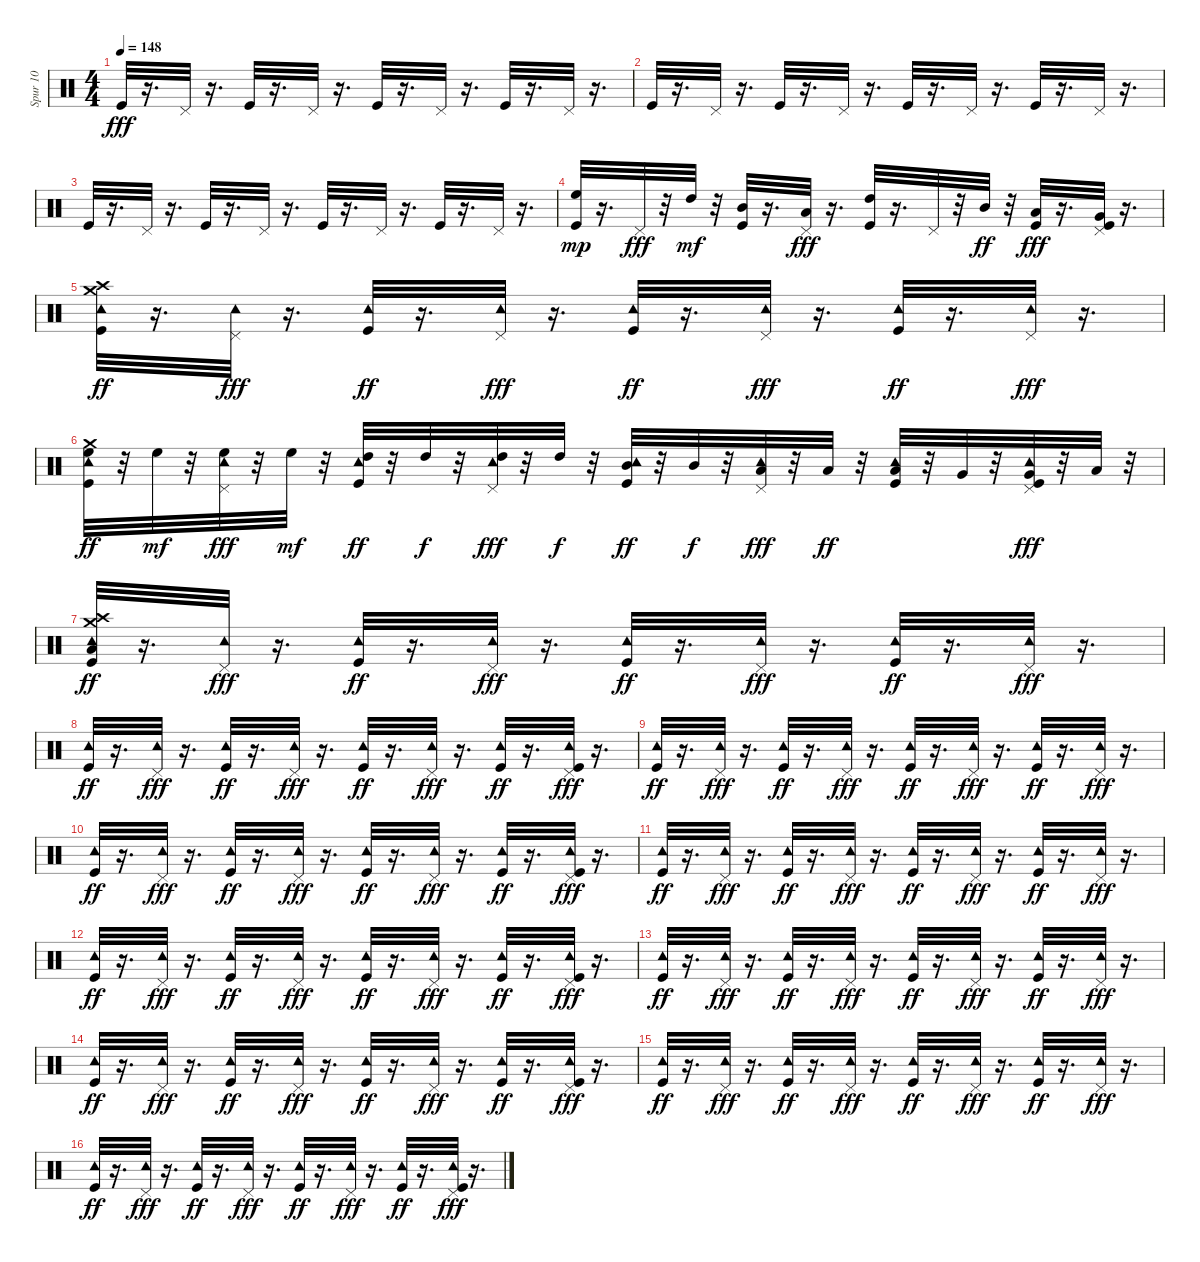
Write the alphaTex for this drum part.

\track ("Spur 10" "Spur 10") {instrument percussion}
\staff {score}
\articulation defaults
\ts (4 4)
\tempo 148
\clef neutral
\ks c "Kick (hit)".32{dy fff}
r.16{d} "Pedal Hi-Hat (hit)".32 r.16{d} "Kick (hit)".32 r.16{d} "Pedal Hi-Hat (hit)".32 r.16{d} "Kick (hit)".32 r.16{d} "Pedal Hi-Hat (hit)".32 r.16{d} "Kick (hit)".32 r.16{d} "Pedal Hi-Hat (hit)".32 r.16{d} |
"Kick (hit)".32 r.16{d} "Pedal Hi-Hat (hit)".32 r.16{d} "Kick (hit)".32 r.16{d} "Pedal Hi-Hat (hit)".32 r.16{d} "Kick (hit)".32 r.16{d} "Pedal Hi-Hat (hit)".32 r.16{d} "Kick (hit)".32 r.16{d} "Pedal Hi-Hat (hit)".32 r.16{d} |
"Kick (hit)".32 r.16{d} "Pedal Hi-Hat (hit)".32 r.16{d} "Kick (hit)".32 r.16{d} "Pedal Hi-Hat (hit)".32 r.16{d} "Kick (hit)".32 r.16{d} "Pedal Hi-Hat (hit)".32 r.16{d} "Kick (hit)".32 r.16{d} "Pedal Hi-Hat (hit)".32 r.16{d} |
("Kick (hit)" "High Floor Tom (hit)").32{dy mp} r.16{d} "Pedal Hi-Hat (hit)".32{dy fff} r.32 "High Tom (hit)".32{dy mf} r.32 ("Kick (hit)" "Mid Tom (hit)").32 r.16{d} ("Low Tom (hit)" "Pedal Hi-Hat (hit)").32{dy fff} r.16{d} ("Kick (hit)" "High Tom (hit)").32 r.16{d} "Pedal Hi-Hat (hit)".32 r.32 "Mid Tom (hit)".32{dy ff} r.32 ("Kick (hit)" "Low Tom (hit)").32{dy fff} r.16{d} ("Kick (hit)" "Very Low Tom (hit)" "Pedal Hi-Hat (hit)").32 r.16{d} |
("Kick (hit)" "Tambourine (hit)" "Crash high (hit)" "Crash medium (hit)").32{dy ff} r.16{d} ("Tambourine (hit)" "Pedal Hi-Hat (hit)").32{dy fff} r.16{d} ("Kick (hit)" "Tambourine (hit)").32{dy ff} r.16{d} ("Tambourine (hit)" "Pedal Hi-Hat (hit)").32{dy fff} r.16{d} ("Kick (hit)" "Tambourine (hit)").32{dy ff} r.16{d} ("Tambourine (hit)" "Pedal Hi-Hat (hit)").32{dy fff} r.16{d} ("Kick (hit)" "Tambourine (hit)").32{dy ff} r.16{d} ("Tambourine (hit)" "Pedal Hi-Hat (hit)").32{dy fff} r.16{d} |
("Kick (hit)" "High Floor Tom (hit)" "Tambourine (hit)" "Crash medium (hit)").32{dy ff} r.32 "High Floor Tom (hit)".32{dy mf} r.32 ("High Floor Tom (hit)" "Tambourine (hit)" "Pedal Hi-Hat (hit)").32{dy fff} r.32 "High Floor Tom (hit)".32{dy mf} r.32 ("Kick (hit)" "High Tom (hit)" "Tambourine (hit)").32{dy ff} r.32 "High Tom (hit)".32{dy f} r.32 ("High Tom (hit)" "Tambourine (hit)" "Pedal Hi-Hat (hit)").32{dy fff} r.32 "High Tom (hit)".32{dy f} r.32 ("Kick (hit)" "Mid Tom (hit)" "Tambourine (hit)").32{dy ff} r.32 "Mid Tom (hit)".32{dy f} r.32 ("Low Tom (hit)" "Tambourine (hit)" "Pedal Hi-Hat (hit)").32{dy fff} r.32 "Low Tom (hit)".32{dy ff} r.32 ("Kick (hit)" "Low Tom (hit)" "Tambourine (hit)").32 r.32 "Very Low Tom (hit)".32 r.32 ("Kick (hit)" "Very Low Tom (hit)" "Tambourine (hit)" "Pedal Hi-Hat (hit)").32{dy fff} r.32 "Low Floor Tom (hit)".32 r.32 |
("Kick (hit)" "Low Floor Tom (hit)" "Tambourine (hit)" "Crash high (hit)" "Crash medium (hit)").32{dy ff} r.16{d} ("Tambourine (hit)" "Pedal Hi-Hat (hit)").32{dy fff} r.16{d} ("Kick (hit)" "Tambourine (hit)").32{dy ff} r.16{d} ("Tambourine (hit)" "Pedal Hi-Hat (hit)").32{dy fff} r.16{d} ("Kick (hit)" "Tambourine (hit)").32{dy ff} r.16{d} ("Tambourine (hit)" "Pedal Hi-Hat (hit)").32{dy fff} r.16{d} ("Kick (hit)" "Tambourine (hit)").32{dy ff} r.16{d} ("Tambourine (hit)" "Pedal Hi-Hat (hit)").32{dy fff} r.16{d} |
("Kick (hit)" "Tambourine (hit)").32{dy ff} r.16{d} ("Tambourine (hit)" "Pedal Hi-Hat (hit)").32{dy fff} r.16{d} ("Kick (hit)" "Tambourine (hit)").32{dy ff} r.16{d} ("Tambourine (hit)" "Pedal Hi-Hat (hit)").32{dy fff} r.16{d} ("Kick (hit)" "Tambourine (hit)").32{dy ff} r.16{d} ("Tambourine (hit)" "Pedal Hi-Hat (hit)").32{dy fff} r.16{d} ("Kick (hit)" "Tambourine (hit)").32{dy ff} r.16{d} ("Kick (hit)" "Tambourine (hit)" "Pedal Hi-Hat (hit)").32{dy fff} r.16{d} |
("Kick (hit)" "Tambourine (hit)").32{dy ff} r.16{d} ("Tambourine (hit)" "Pedal Hi-Hat (hit)").32{dy fff} r.16{d} ("Kick (hit)" "Tambourine (hit)").32{dy ff} r.16{d} ("Tambourine (hit)" "Pedal Hi-Hat (hit)").32{dy fff} r.16{d} ("Kick (hit)" "Tambourine (hit)").32{dy ff} r.16{d} ("Tambourine (hit)" "Pedal Hi-Hat (hit)").32{dy fff} r.16{d} ("Kick (hit)" "Tambourine (hit)").32{dy ff} r.16{d} ("Tambourine (hit)" "Pedal Hi-Hat (hit)").32{dy fff} r.16{d} |
("Kick (hit)" "Tambourine (hit)").32{dy ff} r.16{d} ("Tambourine (hit)" "Pedal Hi-Hat (hit)").32{dy fff} r.16{d} ("Kick (hit)" "Tambourine (hit)").32{dy ff} r.16{d} ("Tambourine (hit)" "Pedal Hi-Hat (hit)").32{dy fff} r.16{d} ("Kick (hit)" "Tambourine (hit)").32{dy ff} r.16{d} ("Tambourine (hit)" "Pedal Hi-Hat (hit)").32{dy fff} r.16{d} ("Kick (hit)" "Tambourine (hit)").32{dy ff} r.16{d} ("Kick (hit)" "Tambourine (hit)" "Pedal Hi-Hat (hit)").32{dy fff} r.16{d} |
("Kick (hit)" "Tambourine (hit)").32{dy ff} r.16{d} ("Tambourine (hit)" "Pedal Hi-Hat (hit)").32{dy fff} r.16{d} ("Kick (hit)" "Tambourine (hit)").32{dy ff} r.16{d} ("Tambourine (hit)" "Pedal Hi-Hat (hit)").32{dy fff} r.16{d} ("Kick (hit)" "Tambourine (hit)").32{dy ff} r.16{d} ("Tambourine (hit)" "Pedal Hi-Hat (hit)").32{dy fff} r.16{d} ("Kick (hit)" "Tambourine (hit)").32{dy ff} r.16{d} ("Tambourine (hit)" "Pedal Hi-Hat (hit)").32{dy fff} r.16{d} |
("Kick (hit)" "Tambourine (hit)").32{dy ff} r.16{d} ("Tambourine (hit)" "Pedal Hi-Hat (hit)").32{dy fff} r.16{d} ("Kick (hit)" "Tambourine (hit)").32{dy ff} r.16{d} ("Tambourine (hit)" "Pedal Hi-Hat (hit)").32{dy fff} r.16{d} ("Kick (hit)" "Tambourine (hit)").32{dy ff} r.16{d} ("Tambourine (hit)" "Pedal Hi-Hat (hit)").32{dy fff} r.16{d} ("Kick (hit)" "Tambourine (hit)").32{dy ff} r.16{d} ("Kick (hit)" "Tambourine (hit)" "Pedal Hi-Hat (hit)").32{dy fff} r.16{d} |
("Kick (hit)" "Tambourine (hit)").32{dy ff} r.16{d} ("Tambourine (hit)" "Pedal Hi-Hat (hit)").32{dy fff} r.16{d} ("Kick (hit)" "Tambourine (hit)").32{dy ff} r.16{d} ("Tambourine (hit)" "Pedal Hi-Hat (hit)").32{dy fff} r.16{d} ("Kick (hit)" "Tambourine (hit)").32{dy ff} r.16{d} ("Tambourine (hit)" "Pedal Hi-Hat (hit)").32{dy fff} r.16{d} ("Kick (hit)" "Tambourine (hit)").32{dy ff} r.16{d} ("Tambourine (hit)" "Pedal Hi-Hat (hit)").32{dy fff} r.16{d} |
("Kick (hit)" "Tambourine (hit)").32{dy ff} r.16{d} ("Tambourine (hit)" "Pedal Hi-Hat (hit)").32{dy fff} r.16{d} ("Kick (hit)" "Tambourine (hit)").32{dy ff} r.16{d} ("Tambourine (hit)" "Pedal Hi-Hat (hit)").32{dy fff} r.16{d} ("Kick (hit)" "Tambourine (hit)").32{dy ff} r.16{d} ("Tambourine (hit)" "Pedal Hi-Hat (hit)").32{dy fff} r.16{d} ("Kick (hit)" "Tambourine (hit)").32{dy ff} r.16{d} ("Kick (hit)" "Tambourine (hit)" "Pedal Hi-Hat (hit)").32{dy fff} r.16{d} |
("Kick (hit)" "Tambourine (hit)").32{dy ff} r.16{d} ("Tambourine (hit)" "Pedal Hi-Hat (hit)").32{dy fff} r.16{d} ("Kick (hit)" "Tambourine (hit)").32{dy ff} r.16{d} ("Tambourine (hit)" "Pedal Hi-Hat (hit)").32{dy fff} r.16{d} ("Kick (hit)" "Tambourine (hit)").32{dy ff} r.16{d} ("Tambourine (hit)" "Pedal Hi-Hat (hit)").32{dy fff} r.16{d} ("Kick (hit)" "Tambourine (hit)").32{dy ff} r.16{d} ("Tambourine (hit)" "Pedal Hi-Hat (hit)").32{dy fff} r.16{d} |
("Kick (hit)" "Tambourine (hit)").32{dy ff} r.16{d} ("Tambourine (hit)" "Pedal Hi-Hat (hit)").32{dy fff} r.16{d} ("Kick (hit)" "Tambourine (hit)").32{dy ff} r.16{d} ("Tambourine (hit)" "Pedal Hi-Hat (hit)").32{dy fff} r.16{d} ("Kick (hit)" "Tambourine (hit)").32{dy ff} r.16{d} ("Tambourine (hit)" "Pedal Hi-Hat (hit)").32{dy fff} r.16{d} ("Kick (hit)" "Tambourine (hit)").32{dy ff} r.16{d} ("Kick (hit)" "Tambourine (hit)" "Pedal Hi-Hat (hit)").32{dy fff} r.16{d}
